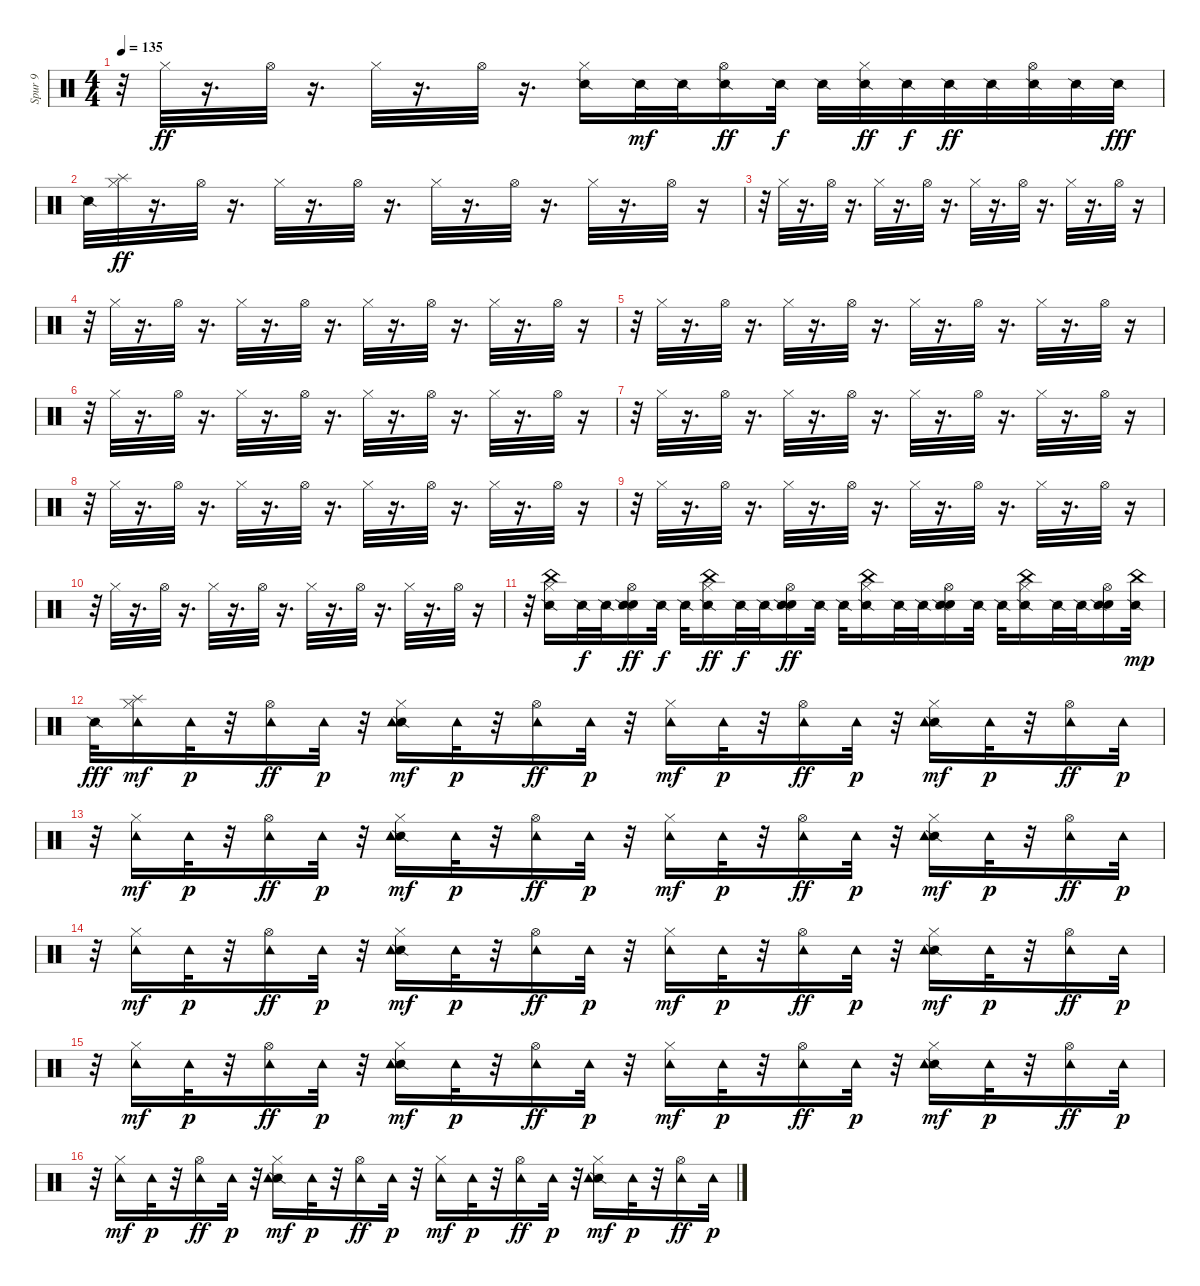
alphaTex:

\track ("Spur 9" "Spur 9") {instrument percussion}
\staff {score}
\articulation defaults
\ts (4 4)
\tempo 135
\clef neutral
\ks c
r.32{dy ff} "Hi-Hat (closed)".32 r.16{d} "Hi-Hat (open)".32 r.16{d} "Hi-Hat (closed)".32 r.16{d} "Hi-Hat (open)".32 r.16{d} ("Snare (side stick) 2" "Hi-Hat (closed)").16 "Snare (side stick) 2".32{dy mf} "Snare (side stick) 2".32 ("Snare (side stick) 2" "Hi-Hat (open)").16{dy ff} "Snare (side stick) 2".32{dy f} "Snare (side stick) 2".32 ("Snare (side stick) 2" "Hi-Hat (closed)").32{dy ff} "Snare (side stick) 2".32{dy f} "Snare (side stick) 2".32{dy ff} "Snare (side stick) 2".32 ("Snare (side stick) 2" "Hi-Hat (open)").32 "Snare (side stick) 2".32 "Snare (side stick) 2".32{dy fff} |
"Snare (side stick) 2".32 ("Splash (hit)" "Hi-Hat (closed)").32{dy ff} r.16{d} "Hi-Hat (open)".32 r.16{d} "Hi-Hat (closed)".32 r.16{d} "Hi-Hat (open)".32 r.16{d} "Hi-Hat (closed)".32 r.16{d} "Hi-Hat (open)".32 r.16{d} "Hi-Hat (closed)".32 r.16{d} "Hi-Hat (open)".32 r.16 |
r.32 "Hi-Hat (closed)".32 r.16{d} "Hi-Hat (open)".32 r.16{d} "Hi-Hat (closed)".32 r.16{d} "Hi-Hat (open)".32 r.16{d} "Hi-Hat (closed)".32 r.16{d} "Hi-Hat (open)".32 r.16{d} "Hi-Hat (closed)".32 r.16{d} "Hi-Hat (open)".32 r.16 |
r.32 "Hi-Hat (closed)".32 r.16{d} "Hi-Hat (open)".32 r.16{d} "Hi-Hat (closed)".32 r.16{d} "Hi-Hat (open)".32 r.16{d} "Hi-Hat (closed)".32 r.16{d} "Hi-Hat (open)".32 r.16{d} "Hi-Hat (closed)".32 r.16{d} "Hi-Hat (open)".32 r.16 |
r.32 "Hi-Hat (closed)".32 r.16{d} "Hi-Hat (open)".32 r.16{d} "Hi-Hat (closed)".32 r.16{d} "Hi-Hat (open)".32 r.16{d} "Hi-Hat (closed)".32 r.16{d} "Hi-Hat (open)".32 r.16{d} "Hi-Hat (closed)".32 r.16{d} "Hi-Hat (open)".32 r.16 |
r.32 "Hi-Hat (closed)".32 r.16{d} "Hi-Hat (open)".32 r.16{d} "Hi-Hat (closed)".32 r.16{d} "Hi-Hat (open)".32 r.16{d} "Hi-Hat (closed)".32 r.16{d} "Hi-Hat (open)".32 r.16{d} "Hi-Hat (closed)".32 r.16{d} "Hi-Hat (open)".32 r.16 |
r.32 "Hi-Hat (closed)".32 r.16{d} "Hi-Hat (open)".32 r.16{d} "Hi-Hat (closed)".32 r.16{d} "Hi-Hat (open)".32 r.16{d} "Hi-Hat (closed)".32 r.16{d} "Hi-Hat (open)".32 r.16{d} "Hi-Hat (closed)".32 r.16{d} "Hi-Hat (open)".32 r.16 |
r.32 "Hi-Hat (closed)".32 r.16{d} "Hi-Hat (open)".32 r.16{d} "Hi-Hat (closed)".32 r.16{d} "Hi-Hat (open)".32 r.16{d} "Hi-Hat (closed)".32 r.16{d} "Hi-Hat (open)".32 r.16{d} "Hi-Hat (closed)".32 r.16{d} "Hi-Hat (open)".32 r.16 |
r.32 "Hi-Hat (closed)".32 r.16{d} "Hi-Hat (open)".32 r.16{d} "Hi-Hat (closed)".32 r.16{d} "Hi-Hat (open)".32 r.16{d} "Hi-Hat (closed)".32 r.16{d} "Hi-Hat (open)".32 r.16{d} "Hi-Hat (closed)".32 r.16{d} "Hi-Hat (open)".32 r.16 |
r.32 "Hi-Hat (closed)".32 r.16{d} "Hi-Hat (open)".32 r.16{d} "Hi-Hat (closed)".32 r.16{d} "Hi-Hat (open)".32 r.16{d} "Hi-Hat (closed)".32 r.16{d} "Hi-Hat (open)".32 r.16{d} "Hi-Hat (closed)".32 r.16{d} "Hi-Hat (open)".32 r.16 |
r.32 ("Snare (side stick) 2" "Hi-Hat (closed)" "China (hit)").16 "Snare (side stick) 2".32{dy f} "Snare (side stick) 2".32 ("Snare (hit)" "Snare (side stick) 2" "Hi-Hat (open)").16{dy ff} "Snare (side stick) 2".32{dy f} "Snare (side stick) 2".32 ("Snare (side stick) 2" "Hi-Hat (closed)" "China (hit)").16{dy ff} "Snare (side stick) 2".32{dy f} "Snare (side stick) 2".32 ("Snare (hit)" "Snare (side stick) 2" "Hi-Hat (open)").16{dy ff} "Snare (side stick) 2".32 "Snare (side stick) 2".32 ("Snare (side stick) 2" "Hi-Hat (closed)" "China (hit)").16 "Snare (side stick) 2".32 "Snare (side stick) 2".32 ("Snare (hit)" "Snare (side stick) 2" "Hi-Hat (open)").16 "Snare (side stick) 2".32 "Snare (side stick) 2".32 ("Snare (side stick) 2" "Hi-Hat (closed)" "China (hit)").16 "Snare (side stick) 2".32 "Snare (side stick) 2".32 ("Snare (hit)" "Snare (side stick) 2" "Hi-Hat (open)").16 ("Snare (side stick) 2" "China (hit)").32{dy mp} |
"Snare (side stick) 2".32{dy fff} ("Splash (hit)" "Hi-Hat (closed)" "Tambourine (hit)").16{dy mf} "Tambourine (hit)".32{dy p} r.32 ("Hi-Hat (open)" "Tambourine (hit)").16{dy ff} "Tambourine (hit)".32{dy p} r.32 ("Snare (side stick) 2" "Hi-Hat (closed)" "Tambourine (hit)").16{dy mf} "Tambourine (hit)".32{dy p} r.32 ("Hi-Hat (open)" "Tambourine (hit)").16{dy ff} "Tambourine (hit)".32{dy p} r.32 ("Hi-Hat (closed)" "Tambourine (hit)").16{dy mf} "Tambourine (hit)".32{dy p} r.32 ("Hi-Hat (open)" "Tambourine (hit)").16{dy ff} "Tambourine (hit)".32{dy p} r.32 ("Snare (side stick) 2" "Hi-Hat (closed)" "Tambourine (hit)").16{dy mf} "Tambourine (hit)".32{dy p} r.32 ("Hi-Hat (open)" "Tambourine (hit)").16{dy ff} "Tambourine (hit)".32{dy p} |
r.32 ("Hi-Hat (closed)" "Tambourine (hit)").16{dy mf} "Tambourine (hit)".32{dy p} r.32 ("Hi-Hat (open)" "Tambourine (hit)").16{dy ff} "Tambourine (hit)".32{dy p} r.32 ("Snare (side stick) 2" "Hi-Hat (closed)" "Tambourine (hit)").16{dy mf} "Tambourine (hit)".32{dy p} r.32 ("Hi-Hat (open)" "Tambourine (hit)").16{dy ff} "Tambourine (hit)".32{dy p} r.32 ("Hi-Hat (closed)" "Tambourine (hit)").16{dy mf} "Tambourine (hit)".32{dy p} r.32 ("Hi-Hat (open)" "Tambourine (hit)").16{dy ff} "Tambourine (hit)".32{dy p} r.32 ("Snare (side stick) 2" "Hi-Hat (closed)" "Tambourine (hit)").16{dy mf} "Tambourine (hit)".32{dy p} r.32 ("Hi-Hat (open)" "Tambourine (hit)").16{dy ff} "Tambourine (hit)".32{dy p} |
r.32 ("Hi-Hat (closed)" "Tambourine (hit)").16{dy mf} "Tambourine (hit)".32{dy p} r.32 ("Hi-Hat (open)" "Tambourine (hit)").16{dy ff} "Tambourine (hit)".32{dy p} r.32 ("Snare (side stick) 2" "Hi-Hat (closed)" "Tambourine (hit)").16{dy mf} "Tambourine (hit)".32{dy p} r.32 ("Hi-Hat (open)" "Tambourine (hit)").16{dy ff} "Tambourine (hit)".32{dy p} r.32 ("Hi-Hat (closed)" "Tambourine (hit)").16{dy mf} "Tambourine (hit)".32{dy p} r.32 ("Hi-Hat (open)" "Tambourine (hit)").16{dy ff} "Tambourine (hit)".32{dy p} r.32 ("Snare (side stick) 2" "Hi-Hat (closed)" "Tambourine (hit)").16{dy mf} "Tambourine (hit)".32{dy p} r.32 ("Hi-Hat (open)" "Tambourine (hit)").16{dy ff} "Tambourine (hit)".32{dy p} |
r.32 ("Hi-Hat (closed)" "Tambourine (hit)").16{dy mf} "Tambourine (hit)".32{dy p} r.32 ("Hi-Hat (open)" "Tambourine (hit)").16{dy ff} "Tambourine (hit)".32{dy p} r.32 ("Snare (side stick) 2" "Hi-Hat (closed)" "Tambourine (hit)").16{dy mf} "Tambourine (hit)".32{dy p} r.32 ("Hi-Hat (open)" "Tambourine (hit)").16{dy ff} "Tambourine (hit)".32{dy p} r.32 ("Hi-Hat (closed)" "Tambourine (hit)").16{dy mf} "Tambourine (hit)".32{dy p} r.32 ("Hi-Hat (open)" "Tambourine (hit)").16{dy ff} "Tambourine (hit)".32{dy p} r.32 ("Snare (side stick) 2" "Hi-Hat (closed)" "Tambourine (hit)").16{dy mf} "Tambourine (hit)".32{dy p} r.32 ("Hi-Hat (open)" "Tambourine (hit)").16{dy ff} "Tambourine (hit)".32{dy p} |
r.32 ("Hi-Hat (closed)" "Tambourine (hit)").16{dy mf} "Tambourine (hit)".32{dy p} r.32 ("Hi-Hat (open)" "Tambourine (hit)").16{dy ff} "Tambourine (hit)".32{dy p} r.32 ("Snare (side stick) 2" "Hi-Hat (closed)" "Tambourine (hit)").16{dy mf} "Tambourine (hit)".32{dy p} r.32 ("Hi-Hat (open)" "Tambourine (hit)").16{dy ff} "Tambourine (hit)".32{dy p} r.32 ("Hi-Hat (closed)" "Tambourine (hit)").16{dy mf} "Tambourine (hit)".32{dy p} r.32 ("Hi-Hat (open)" "Tambourine (hit)").16{dy ff} "Tambourine (hit)".32{dy p} r.32 ("Snare (side stick) 2" "Hi-Hat (closed)" "Tambourine (hit)").16{dy mf} "Tambourine (hit)".32{dy p} r.32 ("Hi-Hat (open)" "Tambourine (hit)").16{dy ff} "Tambourine (hit)".32{dy p}
